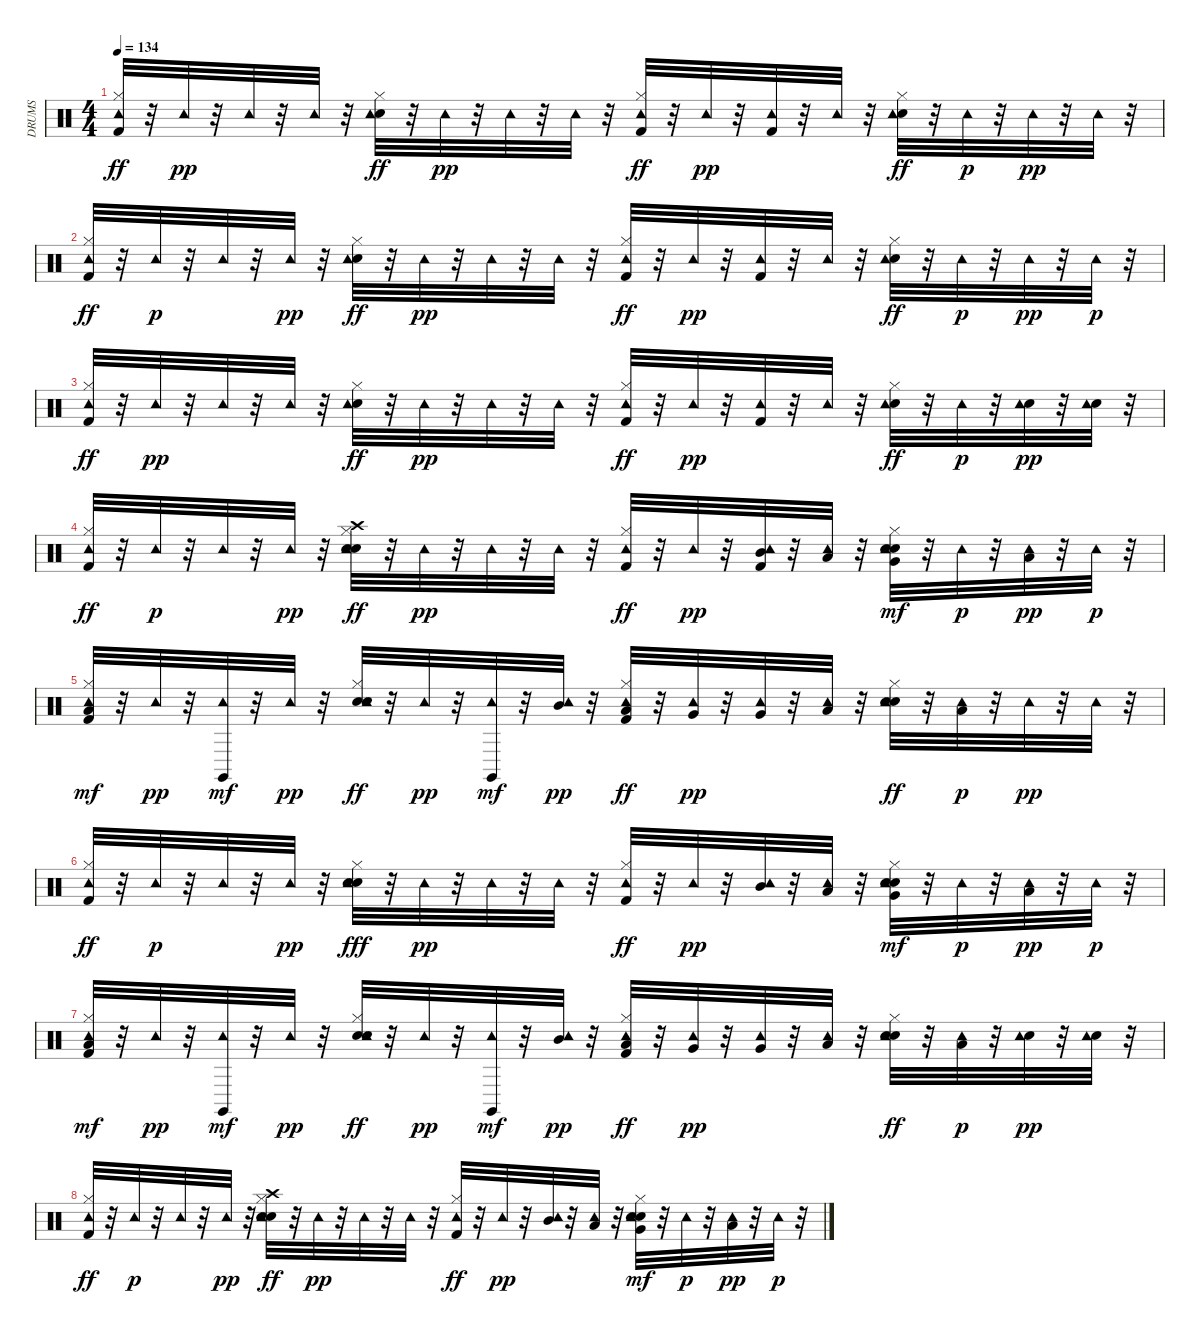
\track ("DRUMS" "DRUMS") {instrument percussion}
\staff {score}
\articulation defaults
\ts (4 4)
\tempo 134
\clef neutral
\ks c
("Kick (hit) 2" "Hi-Hat (closed)" "Tambourine (hit)").32{dy ff} r.32 "Tambourine (hit)".32{dy pp} r.32 "Tambourine (hit)".32 r.32 "Tambourine (hit)".32 r.32 ("Snare (hit) 2" "Hi-Hat (closed)" "Tambourine (hit)").32{dy ff} r.32 "Tambourine (hit)".32{dy pp} r.32 "Tambourine (hit)".32 r.32 "Tambourine (hit)".32 r.32 ("Kick (hit) 2" "Hi-Hat (closed)" "Tambourine (hit)").32{dy ff} r.32 "Tambourine (hit)".32{dy pp} r.32 ("Kick (hit) 2" "Tambourine (hit)").32 r.32 "Tambourine (hit)".32 r.32 ("Snare (hit) 2" "Hi-Hat (closed)" "Tambourine (hit)").32{dy ff} r.32 "Tambourine (hit)".32{dy p} r.32 "Tambourine (hit)".32{dy pp} r.32 "Tambourine (hit)".32 r.32 |
("Kick (hit) 2" "Hi-Hat (closed)" "Tambourine (hit)").32{dy ff} r.32 "Tambourine (hit)".32{dy p} r.32 "Tambourine (hit)".32 r.32 "Tambourine (hit)".32{dy pp} r.32 ("Snare (hit) 2" "Hi-Hat (closed)" "Tambourine (hit)").32{dy ff} r.32 "Tambourine (hit)".32{dy pp} r.32 "Tambourine (hit)".32 r.32 "Tambourine (hit)".32 r.32 ("Kick (hit) 2" "Hi-Hat (closed)" "Tambourine (hit)").32{dy ff} r.32 "Tambourine (hit)".32{dy pp} r.32 ("Kick (hit) 2" "Tambourine (hit)").32 r.32 "Tambourine (hit)".32 r.32 ("Snare (hit) 2" "Hi-Hat (closed)" "Tambourine (hit)").32{dy ff} r.32 "Tambourine (hit)".32{dy p} r.32 "Tambourine (hit)".32{dy pp} r.32 "Tambourine (hit)".32{dy p} r.32 |
("Kick (hit) 2" "Hi-Hat (closed)" "Tambourine (hit)").32{dy ff} r.32 "Tambourine (hit)".32{dy pp} r.32 "Tambourine (hit)".32 r.32 "Tambourine (hit)".32 r.32 ("Snare (hit) 2" "Hi-Hat (closed)" "Tambourine (hit)").32{dy ff} r.32 "Tambourine (hit)".32{dy pp} r.32 "Tambourine (hit)".32 r.32 "Tambourine (hit)".32 r.32 ("Kick (hit) 2" "Hi-Hat (closed)" "Tambourine (hit)").32{dy ff} r.32 "Tambourine (hit)".32{dy pp} r.32 ("Kick (hit) 2" "Tambourine (hit)").32 r.32 "Tambourine (hit)".32 r.32 ("Snare (hit) 2" "Hi-Hat (closed)" "Tambourine (hit)").32{dy ff} r.32 "Tambourine (hit)".32{dy p} r.32 ("Snare (hit) 2" "Tambourine (hit)").32{dy pp} r.32 ("Snare (hit) 2" "Tambourine (hit)").32 r.32 |
("Kick (hit) 2" "Hi-Hat (closed)" "Tambourine (hit)").32{dy ff} r.32 "Tambourine (hit)".32{dy p} r.32 "Tambourine (hit)".32 r.32 "Tambourine (hit)".32{dy pp} r.32 ("Snare (hit) 2" "Hand Clap (hit)" "Hi-Hat (closed)" "Crash high (hit)" "Tambourine (hit)").32{dy ff} r.32 "Tambourine (hit)".32{dy pp} r.32 "Tambourine (hit)".32 r.32 "Tambourine (hit)".32 r.32 ("Kick (hit) 2" "Hi-Hat (closed)" "Tambourine (hit)").32{dy ff} r.32 "Tambourine (hit)".32{dy pp} r.32 ("Kick (hit) 2" "Mid Tom (hit)" "Tambourine (hit)").32 r.32 ("Low Tom (hit)" "Tambourine (hit)").32 r.32 ("Snare (hit) 2" "Hand Clap (hit)" "Hi-Hat (closed)" "Very Low Tom (hit)" "Tambourine (hit)").32{dy mf} r.32 "Tambourine (hit)".32{dy p} r.32 ("Low Floor Tom (hit)" "Tambourine (hit)").32{dy pp} r.32 "Tambourine (hit)".32{dy p} r.32 |
("Kick (hit) 2" "Low Floor Tom (hit)" "Hi-Hat (closed)" "Tambourine (hit)").32{dy mf} r.32 "Tambourine (hit)".32{dy pp} r.32 ("Tambourine (hit)" "Claves (hit)").32{dy mf} r.32 "Tambourine (hit)".32{dy pp} r.32 ("Snare (hit) 2" "Hand Clap (hit)" "Hi-Hat (closed)" "Tambourine (hit)").32{dy ff} r.32 "Tambourine (hit)".32{dy pp} r.32 ("Tambourine (hit)" "Claves (hit)").32{dy mf} r.32 ("Mid Tom (hit)" "Tambourine (hit)").32{dy pp} r.32 ("Kick (hit) 2" "Hi-Hat (closed)" "Low Tom (hit)" "Tambourine (hit)").32{dy ff} r.32 ("Very Low Tom (hit)" "Tambourine (hit)").32{dy pp} r.32 ("Very Low Tom (hit)" "Tambourine (hit)").32 r.32 ("Low Floor Tom (hit)" "Tambourine (hit)").32 r.32 ("Snare (hit) 2" "Hand Clap (hit)" "Hi-Hat (closed)" "Tambourine (hit)").32{dy ff} r.32 ("Low Floor Tom (hit)" "Tambourine (hit)").32{dy p} r.32 "Tambourine (hit)".32{dy pp} r.32 "Tambourine (hit)".32 r.32 |
("Kick (hit) 2" "Hi-Hat (closed)" "Tambourine (hit)").32{dy ff} r.32 "Tambourine (hit)".32{dy p} r.32 "Tambourine (hit)".32 r.32 "Tambourine (hit)".32{dy pp} r.32 ("Snare (hit) 2" "Hand Clap (hit)" "Hi-Hat (closed)" "Tambourine (hit)").32{dy fff} r.32 "Tambourine (hit)".32{dy pp} r.32 "Tambourine (hit)".32 r.32 "Tambourine (hit)".32 r.32 ("Kick (hit) 2" "Hi-Hat (closed)" "Tambourine (hit)").32{dy ff} r.32 "Tambourine (hit)".32{dy pp} r.32 ("Mid Tom (hit)" "Tambourine (hit)").32 r.32 ("Low Tom (hit)" "Tambourine (hit)").32 r.32 ("Snare (hit) 2" "Hand Clap (hit)" "Hi-Hat (closed)" "Very Low Tom (hit)" "Tambourine (hit)").32{dy mf} r.32 "Tambourine (hit)".32{dy p} r.32 ("Low Floor Tom (hit)" "Tambourine (hit)").32{dy pp} r.32 "Tambourine (hit)".32{dy p} r.32 |
("Kick (hit) 2" "Low Floor Tom (hit)" "Hi-Hat (closed)" "Tambourine (hit)").32{dy mf} r.32 "Tambourine (hit)".32{dy pp} r.32 ("Tambourine (hit)" "Claves (hit)").32{dy mf} r.32 "Tambourine (hit)".32{dy pp} r.32 ("Snare (hit) 2" "Hand Clap (hit)" "Hi-Hat (closed)" "Tambourine (hit)").32{dy ff} r.32 "Tambourine (hit)".32{dy pp} r.32 ("Tambourine (hit)" "Claves (hit)").32{dy mf} r.32 ("Mid Tom (hit)" "Tambourine (hit)").32{dy pp} r.32 ("Kick (hit) 2" "Hi-Hat (closed)" "Low Tom (hit)" "Tambourine (hit)").32{dy ff} r.32 ("Very Low Tom (hit)" "Tambourine (hit)").32{dy pp} r.32 ("Very Low Tom (hit)" "Tambourine (hit)").32 r.32 ("Low Floor Tom (hit)" "Tambourine (hit)").32 r.32 ("Snare (hit) 2" "Hand Clap (hit)" "Hi-Hat (closed)" "Tambourine (hit)").32{dy ff} r.32 ("Low Floor Tom (hit)" "Tambourine (hit)").32{dy p} r.32 ("Snare (hit) 2" "Tambourine (hit)").32{dy pp} r.32 ("Snare (hit) 2" "Tambourine (hit)").32 r.32 |
("Kick (hit) 2" "Hi-Hat (closed)" "Tambourine (hit)").32{dy ff} r.32 "Tambourine (hit)".32{dy p} r.32 "Tambourine (hit)".32 r.32 "Tambourine (hit)".32{dy pp} r.32 ("Snare (hit) 2" "Hand Clap (hit)" "Hi-Hat (closed)" "Crash high (hit)" "Tambourine (hit)").32{dy ff} r.32 "Tambourine (hit)".32{dy pp} r.32 "Tambourine (hit)".32 r.32 "Tambourine (hit)".32 r.32 ("Kick (hit) 2" "Hi-Hat (closed)" "Tambourine (hit)").32{dy ff} r.32 "Tambourine (hit)".32{dy pp} r.32 ("Mid Tom (hit)" "Tambourine (hit)").32 r.32 ("Low Tom (hit)" "Tambourine (hit)").32 r.32 ("Snare (hit) 2" "Hand Clap (hit)" "Hi-Hat (closed)" "Very Low Tom (hit)" "Tambourine (hit)").32{dy mf} r.32 "Tambourine (hit)".32{dy p} r.32 ("Low Floor Tom (hit)" "Tambourine (hit)").32{dy pp} r.32 "Tambourine (hit)".32{dy p} r.32
